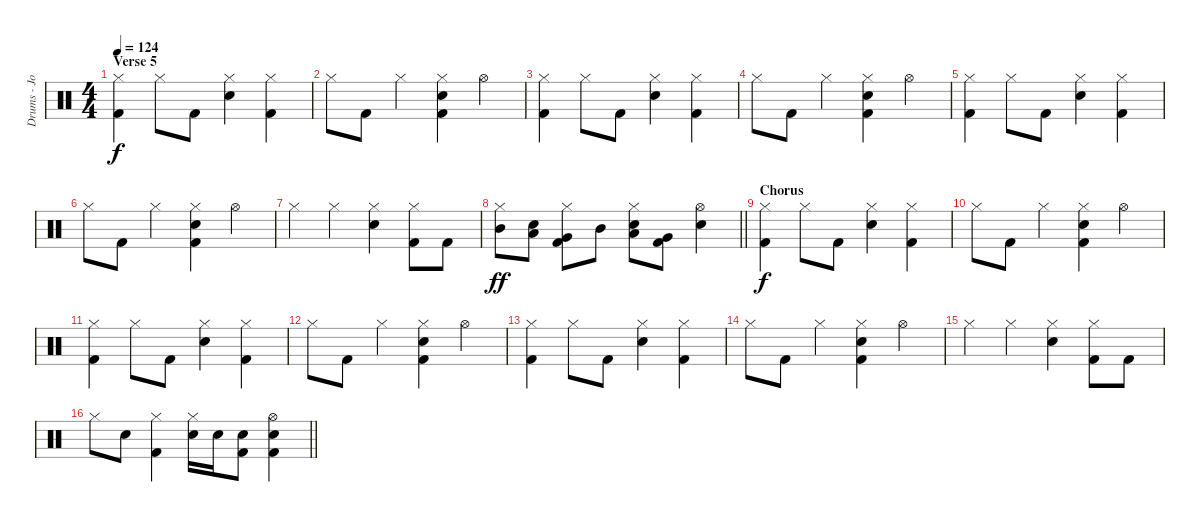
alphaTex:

\track ("Drums - John Humphrey" "Drums - Jo") {instrument percussion}
\staff {score}
\articulation defaults
\ts (4 4)
\section ("" "Verse 5")
\tempo 124
\clef neutral
\ks c
("Hi-Hat (closed)" "Kick (hit) 2").4{dy f} "Hi-Hat (closed)".8 "Kick (hit) 2".8 ("Hi-Hat (closed)" "Electric Snare (hit)").4 ("Hi-Hat (closed)" "Kick (hit) 2").4 |
"Hi-Hat (closed)".8 "Kick (hit) 2".8 "Hi-Hat (closed)".4 ("Hi-Hat (closed)" "Electric Snare (hit)" "Kick (hit) 2").4 "Hi-Hat (open)".4 |
("Hi-Hat (closed)" "Kick (hit) 2").4 "Hi-Hat (closed)".8 "Kick (hit) 2".8 ("Hi-Hat (closed)" "Electric Snare (hit)").4 ("Hi-Hat (closed)" "Kick (hit) 2").4 |
"Hi-Hat (closed)".8 "Kick (hit) 2".8 "Hi-Hat (closed)".4 ("Hi-Hat (closed)" "Electric Snare (hit)" "Kick (hit) 2").4 "Hi-Hat (open)".4 |
("Hi-Hat (closed)" "Kick (hit) 2").4 "Hi-Hat (closed)".8 "Kick (hit) 2".8 ("Hi-Hat (closed)" "Electric Snare (hit)").4 ("Hi-Hat (closed)" "Kick (hit) 2").4 |
"Hi-Hat (closed)".8 "Kick (hit) 2".8 "Hi-Hat (closed)".4 ("Hi-Hat (closed)" "Electric Snare (hit)" "Kick (hit) 2").4 "Hi-Hat (open)".4 |
"Hi-Hat (closed)".4 "Hi-Hat (closed)".4 ("Hi-Hat (closed)" "Electric Snare (hit)").4 ("Hi-Hat (closed)" "Kick (hit) 2").8 "Kick (hit) 2".8 |
\barLineRight lightlight
("Hi-Hat (closed)" "Mid Tom (hit)").8{dy ff} ("Low Tom (hit)" "Electric Snare (hit)").8 ("Hi-Hat (closed)" "Very Low Tom (hit)" "Kick (hit) 2").8 "Mid Tom (hit)".8 ("Hi-Hat (closed)" "Low Tom (hit)" "Electric Snare (hit)").8 ("Very Low Tom (hit)" "Kick (hit) 2").8 ("Hi-Hat (open)" "Electric Snare (hit)").4 |
\section ("" "Chorus")
("Hi-Hat (closed)" "Kick (hit) 2").4{dy f} "Hi-Hat (closed)".8 "Kick (hit) 2".8 ("Hi-Hat (closed)" "Electric Snare (hit)").4 ("Hi-Hat (closed)" "Kick (hit) 2").4 |
"Hi-Hat (closed)".8 "Kick (hit) 2".8 "Hi-Hat (closed)".4 ("Hi-Hat (closed)" "Electric Snare (hit)" "Kick (hit) 2").4 "Hi-Hat (open)".4 |
("Hi-Hat (closed)" "Kick (hit) 2").4 "Hi-Hat (closed)".8 "Kick (hit) 2".8 ("Hi-Hat (closed)" "Electric Snare (hit)").4 ("Hi-Hat (closed)" "Kick (hit) 2").4 |
"Hi-Hat (closed)".8 "Kick (hit) 2".8 "Hi-Hat (closed)".4 ("Hi-Hat (closed)" "Electric Snare (hit)" "Kick (hit) 2").4 "Hi-Hat (open)".4 |
("Hi-Hat (closed)" "Kick (hit) 2").4 "Hi-Hat (closed)".8 "Kick (hit) 2".8 ("Hi-Hat (closed)" "Electric Snare (hit)").4 ("Hi-Hat (closed)" "Kick (hit) 2").4 |
"Hi-Hat (closed)".8 "Kick (hit) 2".8 "Hi-Hat (closed)".4 ("Hi-Hat (closed)" "Electric Snare (hit)" "Kick (hit) 2").4 "Hi-Hat (open)".4 |
"Hi-Hat (closed)".4 "Hi-Hat (closed)".4 ("Hi-Hat (closed)" "Electric Snare (hit)").4 ("Hi-Hat (closed)" "Kick (hit) 2").8 "Kick (hit) 2".8 |
\barLineRight lightlight "Hi-Hat (closed)".8 "Electric Snare (hit)".8
("Hi-Hat (closed)" "Kick (hit) 2").4 ("Hi-Hat (closed)" "Electric Snare (hit)").16 "Electric Snare (hit)".16 ("Electric Snare (hit)" "Kick (hit) 2").8 ("Hi-Hat (open)" "Electric Snare (hit)" "Kick (hit) 2").4
